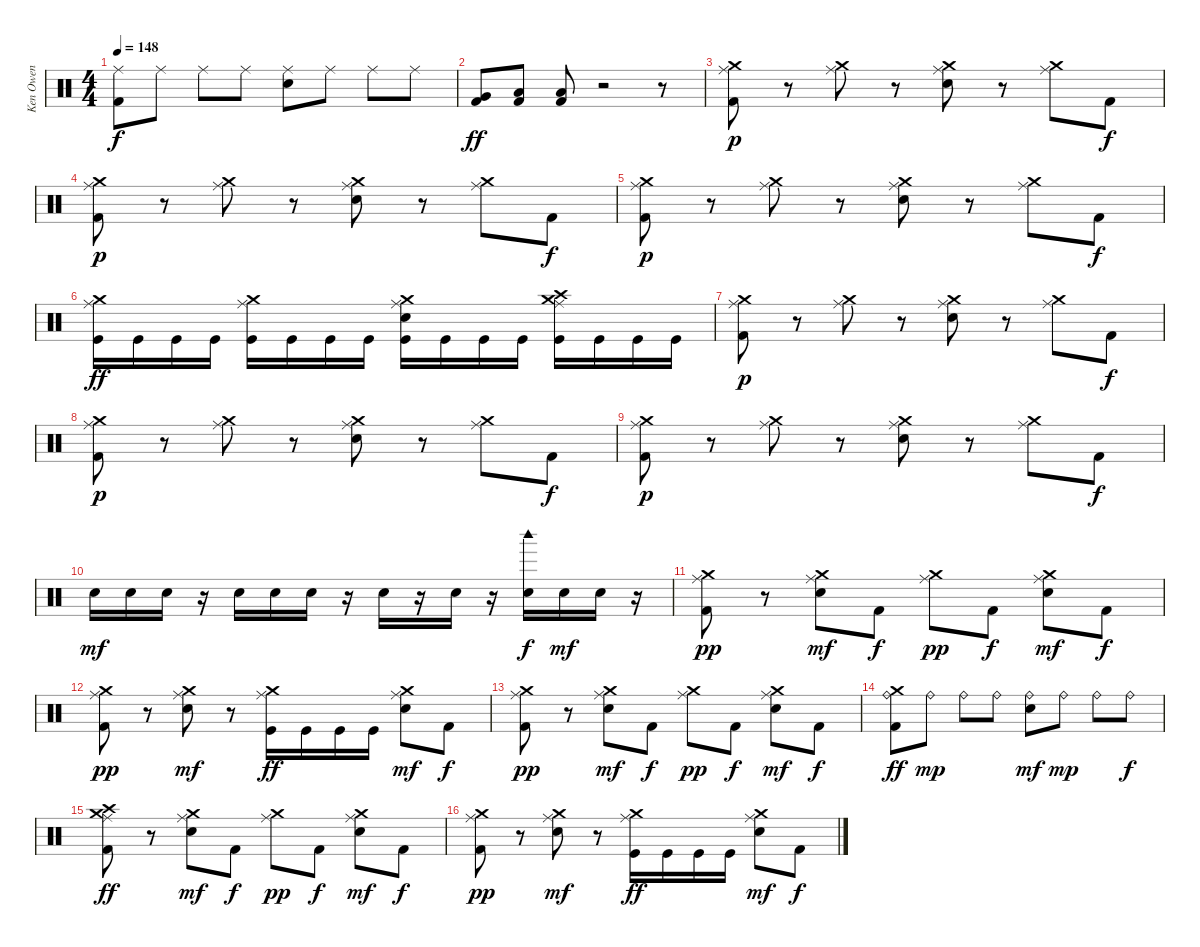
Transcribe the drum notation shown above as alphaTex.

\track ("Ken Owen" "Ken Owen") {instrument percussion}
\staff {score}
\articulation defaults
\ts (4 4)
\tempo 148
\clef neutral
\ks c
("Ride (middle)" "Kick (hit) 2").8{dy f} "Ride (middle)".8 "Ride (middle)".8 "Ride (middle)".8 ("Ride (middle)" "Snare (hit) 2").8 "Ride (middle)".8 "Ride (middle)".8 "Ride (middle)".8 |
("Kick (hit) 2" "Very Low Tom (hit)").8{dy ff} ("Kick (hit) 2" "Low Floor Tom (hit)").8 ("Kick (hit) 2" "Low Floor Tom (hit)").8 r.2 r.8 |
("Crash medium (hit)" "Ride (middle)" "Kick (hit) 2").8{dy p} r.8 ("Crash medium (hit)" "Ride (middle)").8 r.8 ("Crash medium (hit)" "Ride (middle)" "Snare (hit) 2").8 r.8 ("Crash medium (hit)" "Ride (middle)").8 "Kick (hit) 2".8{dy f} |
("Crash medium (hit)" "Ride (middle)" "Kick (hit) 2").8{dy p} r.8 ("Crash medium (hit)" "Ride (middle)").8 r.8 ("Crash medium (hit)" "Ride (middle)" "Snare (hit) 2").8 r.8 ("Crash medium (hit)" "Ride (middle)").8 "Kick (hit) 2".8{dy f} |
("Crash medium (hit)" "Ride (middle)" "Kick (hit) 2").8{dy p} r.8 ("Crash medium (hit)" "Ride (middle)").8 r.8 ("Crash medium (hit)" "Ride (middle)" "Snare (hit) 2").8 r.8 ("Crash medium (hit)" "Ride (middle)").8 "Kick (hit) 2".8{dy f} |
("Crash medium (hit)" "Ride (middle)" "Kick (hit)").16{dy ff} "Kick (hit)".16 "Kick (hit)".16 "Kick (hit)".16 ("Crash medium (hit)" "Ride (middle)" "Kick (hit)").16 "Kick (hit)".16 "Kick (hit)".16 "Kick (hit)".16 ("Crash medium (hit)" "Ride (middle)" "Kick (hit)" "Snare (hit) 2").16 "Kick (hit)".16 "Kick (hit)".16 "Kick (hit)".16 ("Crash medium (hit)" "Ride (middle)" "Kick (hit)" "Crash high (hit)").16 "Kick (hit)".16 "Kick (hit)".16 "Kick (hit)".16 |
("Crash medium (hit)" "Ride (middle)" "Kick (hit) 2").8{dy p} r.8 ("Crash medium (hit)" "Ride (middle)").8 r.8 ("Crash medium (hit)" "Ride (middle)" "Snare (hit) 2").8 r.8 ("Crash medium (hit)" "Ride (middle)").8 "Kick (hit) 2".8{dy f} |
("Crash medium (hit)" "Ride (middle)" "Kick (hit) 2").8{dy p} r.8 ("Crash medium (hit)" "Ride (middle)").8 r.8 ("Crash medium (hit)" "Ride (middle)" "Snare (hit) 2").8 r.8 ("Crash medium (hit)" "Ride (middle)").8 "Kick (hit) 2".8{dy f} |
("Crash medium (hit)" "Ride (middle)" "Kick (hit) 2").8{dy p} r.8 ("Crash medium (hit)" "Ride (middle)").8 r.8 ("Crash medium (hit)" "Ride (middle)" "Snare (hit) 2").8 r.8 ("Crash medium (hit)" "Ride (middle)").8 "Kick (hit) 2".8{dy f} |
"Snare (hit) 2".16{dy mf} "Snare (hit) 2".16 "Snare (hit) 2".16 r.16 "Snare (hit) 2".16 "Snare (hit) 2".16 "Snare (hit) 2".16 r.16 "Snare (hit) 2".16 r.16 "Snare (hit) 2".16 r.16 ("Snare (hit) 2" "Woodblock high (hit)").16{dy f} "Snare (hit) 2".16{dy mf} "Snare (hit) 2".16 r.16 |
("Crash medium (hit)" "Ride (middle)" "Kick (hit) 2").8{dy pp} r.8 ("Crash medium (hit)" "Ride (middle)" "Snare (hit) 2").8{dy mf} "Kick (hit) 2".8{dy f} ("Crash medium (hit)" "Ride (middle)").8{dy pp} "Kick (hit) 2".8{dy f} ("Crash medium (hit)" "Ride (middle)" "Snare (hit) 2").8{dy mf} "Kick (hit) 2".8{dy f} |
("Crash medium (hit)" "Ride (middle)" "Kick (hit) 2").8{dy pp} r.8 ("Crash medium (hit)" "Ride (middle)" "Snare (hit) 2").8{dy mf} r.8 ("Crash medium (hit)" "Ride (middle)" "Kick (hit)").16{dy ff} "Kick (hit)".16 "Kick (hit)".16 "Kick (hit)".16 ("Crash medium (hit)" "Ride (middle)" "Snare (hit) 2").8{dy mf} "Kick (hit) 2".8{dy f} |
("Crash medium (hit)" "Ride (middle)" "Kick (hit) 2").8{dy pp} r.8 ("Crash medium (hit)" "Ride (middle)" "Snare (hit) 2").8{dy mf} "Kick (hit) 2".8{dy f} ("Crash medium (hit)" "Ride (middle)").8{dy pp} "Kick (hit) 2".8{dy f} ("Crash medium (hit)" "Ride (middle)" "Snare (hit) 2").8{dy mf} "Kick (hit) 2".8{dy f} |
("Ride (bell)" "Kick (hit) 2" "Crash medium (hit)").8{dy ff} "Ride (bell)".8{dy mp} "Ride (bell)".8 "Ride (bell)".8 ("Ride (bell)" "Snare (hit) 2").8{dy mf} "Ride (bell)".8{dy mp} "Ride (bell)".8 "Ride (bell)".8{dy f} |
("Crash medium (hit)" "Ride (middle)" "Kick (hit) 2" "Crash high (hit)").8{dy ff} r.8 ("Crash medium (hit)" "Ride (middle)" "Snare (hit) 2").8{dy mf} "Kick (hit) 2".8{dy f} ("Crash medium (hit)" "Ride (middle)").8{dy pp} "Kick (hit) 2".8{dy f} ("Crash medium (hit)" "Ride (middle)" "Snare (hit) 2").8{dy mf} "Kick (hit) 2".8{dy f} |
("Crash medium (hit)" "Ride (middle)" "Kick (hit) 2").8{dy pp} r.8 ("Crash medium (hit)" "Ride (middle)" "Snare (hit) 2").8{dy mf} r.8 ("Crash medium (hit)" "Ride (middle)" "Kick (hit)").16{dy ff} "Kick (hit)".16 "Kick (hit)".16 "Kick (hit)".16 ("Crash medium (hit)" "Ride (middle)" "Snare (hit) 2").8{dy mf} "Kick (hit) 2".8{dy f}
